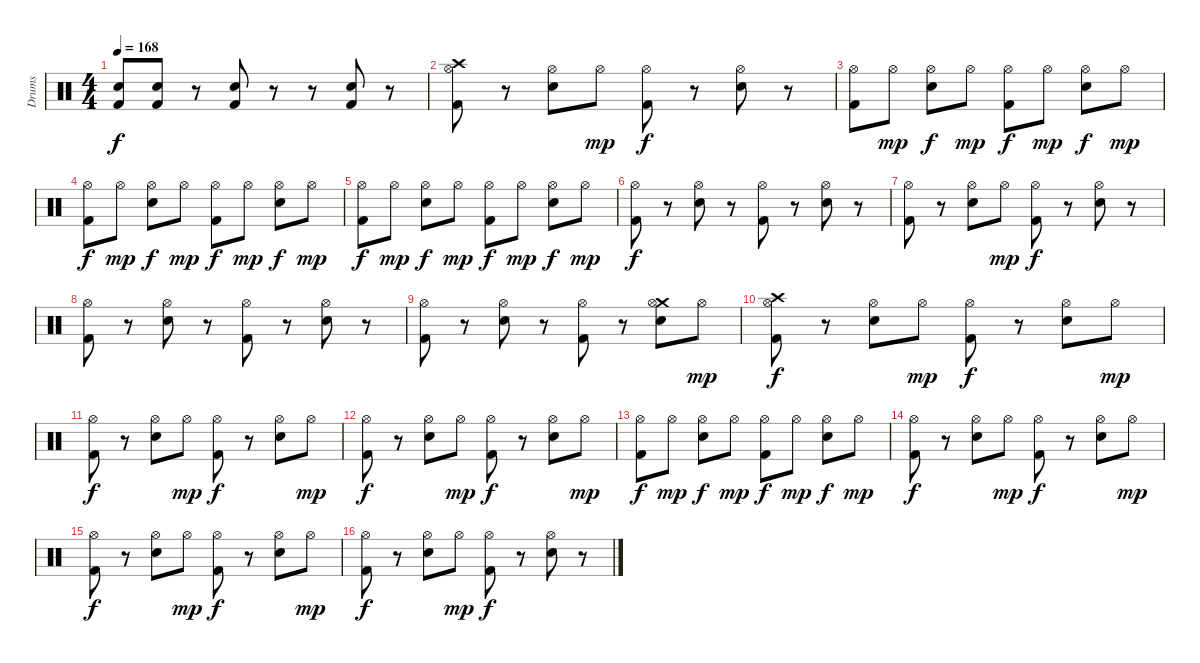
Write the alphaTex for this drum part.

\track ("Drums" "Drums") {instrument percussion}
\staff {score}
\articulation defaults
\ts (4 4)
\tempo 168
\clef neutral
\ks c
("Electric Snare (hit)" "Kick (hit) 2").8{dy f} ("Electric Snare (hit)" "Kick (hit) 2").8 r.8 ("Electric Snare (hit)" "Kick (hit) 2").8 r.8 r.8 ("Electric Snare (hit)" "Kick (hit) 2").8 r.8 |
("Crash high (hit)" "Hi-Hat (open)" "Kick (hit) 2").8 r.8 ("Hi-Hat (open)" "Electric Snare (hit)").8 "Hi-Hat (open)".8{dy mp} ("Hi-Hat (open)" "Kick (hit) 2").8{dy f} r.8 ("Hi-Hat (open)" "Electric Snare (hit)").8 r.8 |
("Hi-Hat (open)" "Kick (hit) 2").8 "Hi-Hat (open)".8{dy mp} ("Hi-Hat (open)" "Electric Snare (hit)").8{dy f} "Hi-Hat (open)".8{dy mp} ("Hi-Hat (open)" "Kick (hit) 2").8{dy f} "Hi-Hat (open)".8{dy mp} ("Hi-Hat (open)" "Electric Snare (hit)").8{dy f} "Hi-Hat (open)".8{dy mp} |
("Hi-Hat (open)" "Kick (hit) 2").8{dy f} "Hi-Hat (open)".8{dy mp} ("Hi-Hat (open)" "Electric Snare (hit)").8{dy f} "Hi-Hat (open)".8{dy mp} ("Hi-Hat (open)" "Kick (hit) 2").8{dy f} "Hi-Hat (open)".8{dy mp} ("Hi-Hat (open)" "Electric Snare (hit)").8{dy f} "Hi-Hat (open)".8{dy mp} |
("Hi-Hat (open)" "Kick (hit) 2").8{dy f} "Hi-Hat (open)".8{dy mp} ("Hi-Hat (open)" "Electric Snare (hit)").8{dy f} "Hi-Hat (open)".8{dy mp} ("Hi-Hat (open)" "Kick (hit) 2").8{dy f} "Hi-Hat (open)".8{dy mp} ("Hi-Hat (open)" "Electric Snare (hit)").8{dy f} "Hi-Hat (open)".8{dy mp} |
("Hi-Hat (open)" "Kick (hit) 2").8{dy f} r.8 ("Hi-Hat (open)" "Electric Snare (hit)").8 r.8 ("Hi-Hat (open)" "Kick (hit) 2").8 r.8 ("Hi-Hat (open)" "Electric Snare (hit)").8 r.8 |
("Hi-Hat (open)" "Kick (hit) 2").8 r.8 ("Hi-Hat (open)" "Electric Snare (hit)").8 "Hi-Hat (open)".8{dy mp} ("Hi-Hat (open)" "Kick (hit) 2").8{dy f} r.8 ("Hi-Hat (open)" "Electric Snare (hit)").8 r.8 |
("Hi-Hat (open)" "Kick (hit) 2").8 r.8 ("Hi-Hat (open)" "Electric Snare (hit)").8 r.8 ("Hi-Hat (open)" "Kick (hit) 2").8 r.8 ("Hi-Hat (open)" "Electric Snare (hit)").8 r.8 |
("Hi-Hat (open)" "Kick (hit) 2").8 r.8 ("Hi-Hat (open)" "Electric Snare (hit)").8 r.8 ("Hi-Hat (open)" "Kick (hit) 2").8 r.8 ("Crash medium (hit)" "Hi-Hat (open)" "Electric Snare (hit)").8 "Hi-Hat (open)".8{dy mp} |
("Crash high (hit)" "Hi-Hat (open)" "Kick (hit) 2").8{dy f} r.8 ("Hi-Hat (open)" "Electric Snare (hit)").8 "Hi-Hat (open)".8{dy mp} ("Hi-Hat (open)" "Kick (hit) 2").8{dy f} r.8 ("Hi-Hat (open)" "Electric Snare (hit)").8 "Hi-Hat (open)".8{dy mp} |
("Hi-Hat (open)" "Kick (hit) 2").8{dy f} r.8 ("Hi-Hat (open)" "Electric Snare (hit)").8 "Hi-Hat (open)".8{dy mp} ("Hi-Hat (open)" "Kick (hit) 2").8{dy f} r.8 ("Hi-Hat (open)" "Electric Snare (hit)").8 "Hi-Hat (open)".8{dy mp} |
("Hi-Hat (open)" "Kick (hit) 2").8{dy f} r.8 ("Hi-Hat (open)" "Electric Snare (hit)").8 "Hi-Hat (open)".8{dy mp} ("Hi-Hat (open)" "Kick (hit) 2").8{dy f} r.8 ("Hi-Hat (open)" "Electric Snare (hit)").8 "Hi-Hat (open)".8{dy mp} |
("Hi-Hat (open)" "Kick (hit) 2").8{dy f} "Hi-Hat (open)".8{dy mp} ("Hi-Hat (open)" "Electric Snare (hit)").8{dy f} "Hi-Hat (open)".8{dy mp} ("Hi-Hat (open)" "Kick (hit) 2").8{dy f} "Hi-Hat (open)".8{dy mp} ("Hi-Hat (open)" "Electric Snare (hit)").8{dy f} "Hi-Hat (open)".8{dy mp} |
("Hi-Hat (open)" "Kick (hit) 2").8{dy f} r.8 ("Hi-Hat (open)" "Electric Snare (hit)").8 "Hi-Hat (open)".8{dy mp} ("Hi-Hat (open)" "Kick (hit) 2").8{dy f} r.8 ("Hi-Hat (open)" "Electric Snare (hit)").8 "Hi-Hat (open)".8{dy mp} |
("Hi-Hat (open)" "Kick (hit) 2").8{dy f} r.8 ("Hi-Hat (open)" "Electric Snare (hit)").8 "Hi-Hat (open)".8{dy mp} ("Hi-Hat (open)" "Kick (hit) 2").8{dy f} r.8 ("Hi-Hat (open)" "Electric Snare (hit)").8 "Hi-Hat (open)".8{dy mp} |
("Hi-Hat (open)" "Kick (hit) 2").8{dy f} r.8 ("Hi-Hat (open)" "Electric Snare (hit)").8 "Hi-Hat (open)".8{dy mp} ("Hi-Hat (open)" "Kick (hit) 2").8{dy f} r.8 ("Hi-Hat (open)" "Electric Snare (hit)").8 r.8
